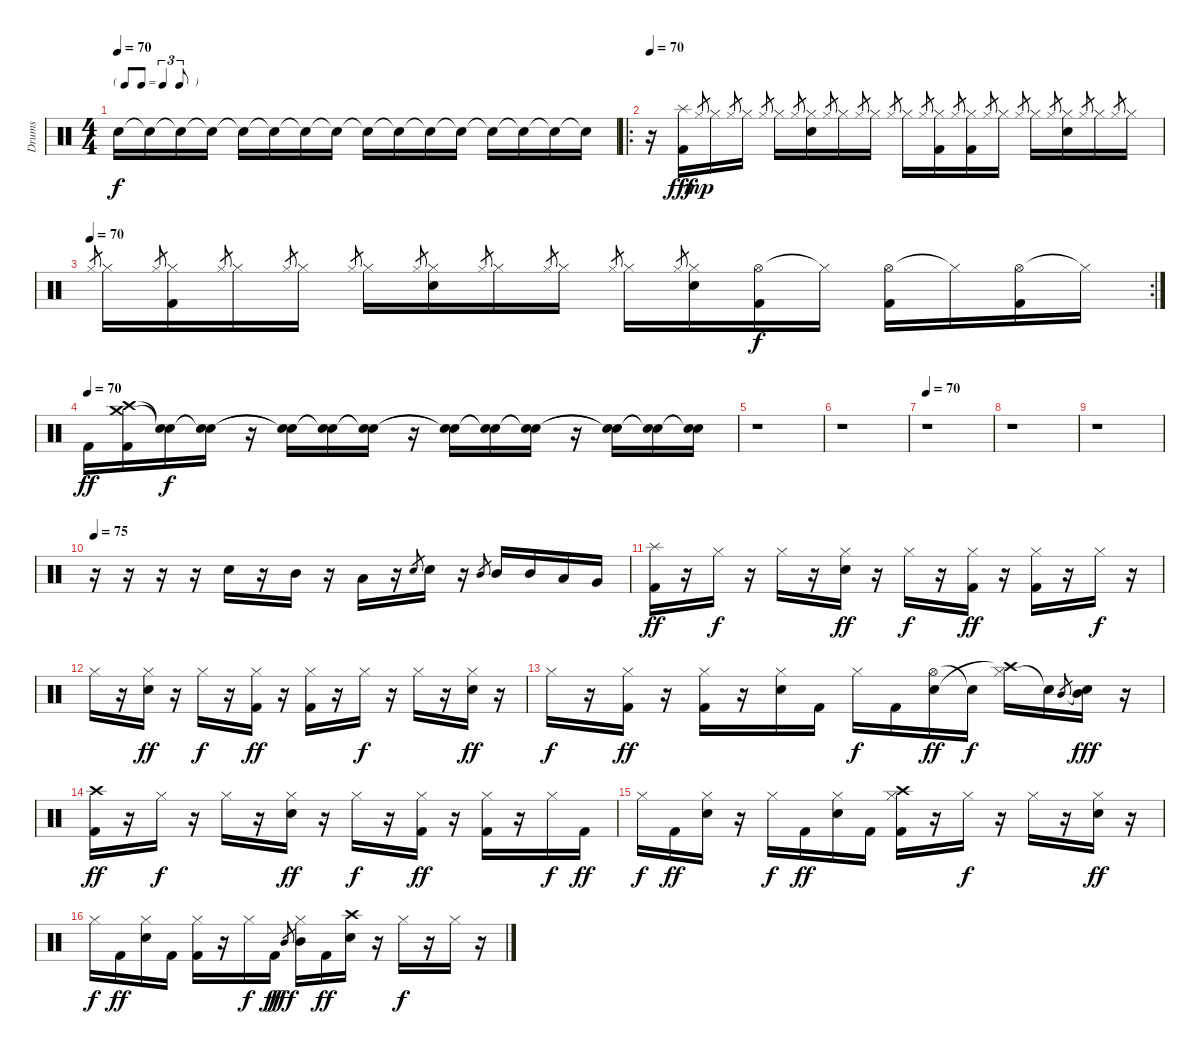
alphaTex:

\track ("Drums" "Drums") {instrument percussion}
\staff {score}
\articulation defaults
\ts (4 4)
\tf triplet8th
\tempo 70
\clef neutral
\ks c "Snare (hit)"{t}.16{dy f} "Snare (hit)"{t}.16 "Snare (hit)"{t}.16 "Snare (hit)"{t}.16 "Snare (hit)"{t}.16 "Snare (hit)"{t}.16 "Snare (hit)"{t}.16 "Snare (hit)"{t}.16 "Snare (hit)"{t}.16 "Snare (hit)"{t}.16 "Snare (hit)"{t}.16 "Snare (hit)"{t}.16 "Snare (hit)"{t}.16 "Snare (hit)"{t}.16 "Snare (hit)"{t}.16 "Snare (hit)"{t}.16
|
\ro
\tempo 70
r.16 ("Splash (hit)" "Kick (hit) 2").16{dy fff} "Hi-Hat (closed)".8{gr dy mp} "Hi-Hat (closed)".16 "Hi-Hat (closed)".8{gr} "Hi-Hat (closed)".16 "Hi-Hat (closed)".8{gr} "Hi-Hat (closed)".16 "Hi-Hat (closed)".8{gr} ("Hi-Hat (closed)" "Electric Snare (hit)").16 "Hi-Hat (closed)".8{gr} "Hi-Hat (closed)".16 "Hi-Hat (closed)".8{gr} "Hi-Hat (closed)".16 "Hi-Hat (closed)".8{gr} "Hi-Hat (closed)".16 "Hi-Hat (closed)".8{gr} ("Hi-Hat (closed)" "Kick (hit) 2").16 "Hi-Hat (closed)".8{gr} ("Hi-Hat (closed)" "Kick (hit) 2").16 "Hi-Hat (closed)".8{gr} "Hi-Hat (closed)".16 "Hi-Hat (closed)".8{gr} "Hi-Hat (closed)".16 "Hi-Hat (closed)".8{gr} ("Hi-Hat (closed)" "Electric Snare (hit)").16 "Hi-Hat (closed)".8{gr} "Hi-Hat (closed)".16 "Hi-Hat (closed)".8{gr} "Hi-Hat (closed)".16 |
\rc 2
\tempo (70)
"Hi-Hat (closed)".8{gr} "Hi-Hat (closed)".16 "Hi-Hat (closed)".8{gr} ("Hi-Hat (closed)" "Kick (hit) 2").16 "Hi-Hat (closed)".8{gr} "Hi-Hat (closed)".16 "Hi-Hat (closed)".8{gr} "Hi-Hat (closed)".16 "Hi-Hat (closed)".8{gr} "Hi-Hat (closed)".16 "Hi-Hat (closed)".8{gr} ("Hi-Hat (closed)" "Electric Snare (hit)").16 "Hi-Hat (closed)".8{gr} "Hi-Hat (closed)".16 "Hi-Hat (closed)".8{gr} "Hi-Hat (closed)".16 "Hi-Hat (closed)".8{gr} "Hi-Hat (closed)".16 "Hi-Hat (closed)".8{gr} ("Hi-Hat (closed)" "Electric Snare (hit)").16 ("Hi-Hat (open)" "Kick (hit) 2").16{dy f} "Hi-Hat (closed)"{t}.16 ("Hi-Hat (open)" "Kick (hit) 2").16 "Hi-Hat (closed)"{t}.16 ("Hi-Hat (open)" "Kick (hit) 2").16 "Hi-Hat (closed)"{t}.16 |
\tempo (70)
"Kick (hit) 2".16{dy ff} ("Crash high (hit)" "Crash medium (hit)" "Kick (hit) 2").16 ("Snare (hit)"{t} "Snare (hit)"{t}).16{dy f} ("Snare (hit)"{t} "Snare (hit)"{t}).16 r.16 ("Snare (hit)"{t} "Snare (hit)"{t}).16 ("Snare (hit)"{t} "Snare (hit)"{t}).16 ("Snare (hit)"{t} "Snare (hit)"{t}).16 r.16 ("Snare (hit)"{t} "Snare (hit)"{t}).16 ("Snare (hit)"{t} "Snare (hit)"{t}).16 ("Snare (hit)"{t} "Snare (hit)"{t}).16 r.16 ("Snare (hit)"{t} "Snare (hit)"{t}).16 ("Snare (hit)"{t} "Snare (hit)"{t}).16 ("Snare (hit)"{t} "Snare (hit)"{t}).16 |
r.1 |
r.1 |
\tempo 70
r.1 |
r.1 |
r.1 |
\tempo 75
r.16 r.16 r.16 r.16 "Electric Snare (hit)".16 r.16 "Mid Tom (hit)".16 r.16 "Low Tom (hit)".16 r.16 "Electric Snare (hit)".8{gr} "Electric Snare (hit)".16 r.16 "Mid Tom (hit)".8{gr} "Mid Tom (hit)".16 "Mid Tom (hit)".16 "Low Tom (hit)".16 "Very Low Tom (hit)".16 |
("Splash (hit)" "Kick (hit) 2").16{dy ff} r.16 "Hi-Hat (closed)".16{dy f} r.16 "Hi-Hat (closed)".16 r.16 ("Hi-Hat (closed)" "Electric Snare (hit)").16{dy ff} r.16 "Hi-Hat (closed)".16{dy f} r.16 ("Hi-Hat (closed)" "Kick (hit) 2").16{dy ff} r.16 ("Hi-Hat (closed)" "Kick (hit) 2").16 r.16 "Hi-Hat (closed)".16{dy f} r.16 |
"Hi-Hat (closed)".16 r.16 ("Hi-Hat (closed)" "Electric Snare (hit)").16{dy ff} r.16 "Hi-Hat (closed)".16{dy f} r.16 ("Hi-Hat (closed)" "Kick (hit) 2").16{dy ff} r.16 ("Hi-Hat (closed)" "Kick (hit) 2").16 r.16 "Hi-Hat (closed)".16{dy f} r.16 "Hi-Hat (closed)".16 r.16 ("Hi-Hat (closed)" "Electric Snare (hit)").16{dy ff} r.16 |
"Hi-Hat (closed)".16{dy f} r.16 ("Hi-Hat (closed)" "Kick (hit) 2").16{dy ff} r.16 ("Hi-Hat (closed)" "Kick (hit) 2").16 r.16 ("Hi-Hat (closed)" "Electric Snare (hit)").16 "Kick (hit) 2".16 "Hi-Hat (closed)".16{dy f} "Kick (hit) 2".16 ("Hi-Hat (open)" "Electric Snare (hit)").16{dy ff} "Snare (hit)"{t}.16{dy f} ("Hi-Hat (closed)" "Crash high (hit)"{t}).16 "Snare (hit)"{t}.16 "Mid Tom (hit)".8{gr} ("Snare (hit)"{t} "Mid Tom (hit)").16{dy fff} r.16 |
("Crash high (hit)" "Kick (hit) 2").16{dy ff} r.16 "Hi-Hat (closed)".16{dy f} r.16 "Hi-Hat (closed)".16 r.16 ("Hi-Hat (closed)" "Electric Snare (hit)").16{dy ff} r.16 "Hi-Hat (closed)".16{dy f} r.16 ("Hi-Hat (closed)" "Kick (hit) 2").16{dy ff} r.16 ("Hi-Hat (closed)" "Kick (hit) 2").16 r.16 "Hi-Hat (closed)".16{dy f} "Kick (hit) 2".16{dy ff} |
"Hi-Hat (closed)".16{dy f} "Kick (hit) 2".16{dy ff} ("Hi-Hat (closed)" "Electric Snare (hit)").16 r.16 "Hi-Hat (closed)".16{dy f} "Kick (hit) 2".16{dy ff} ("Hi-Hat (closed)" "Electric Snare (hit)").16 "Kick (hit) 2".16 ("Hi-Hat (closed)" "Crash high (hit)" "Kick (hit) 2").16 r.16 "Hi-Hat (closed)".16{dy f} r.16 "Hi-Hat (closed)".16 r.16 ("Hi-Hat (closed)" "Electric Snare (hit)").16{dy ff} r.16 |
"Hi-Hat (closed)".16{dy f} "Kick (hit) 2".16{dy ff} ("Hi-Hat (closed)" "Electric Snare (hit)").16 "Kick (hit) 2".16 ("Hi-Hat (closed)" "Kick (hit) 2").16 r.16 "Hi-Hat (closed)".16{dy f} "Kick (hit) 2".16{dy ff} "Mid Tom (hit)".8{gr dy fff} ("Hi-Hat (closed)" "Mid Tom (hit)").16 "Kick (hit) 2".16{dy ff} ("Crash high (hit)" "Electric Snare (hit)").16 r.16 "Hi-Hat (closed)".16{dy f} r.16 "Hi-Hat (closed)".16 r.16
